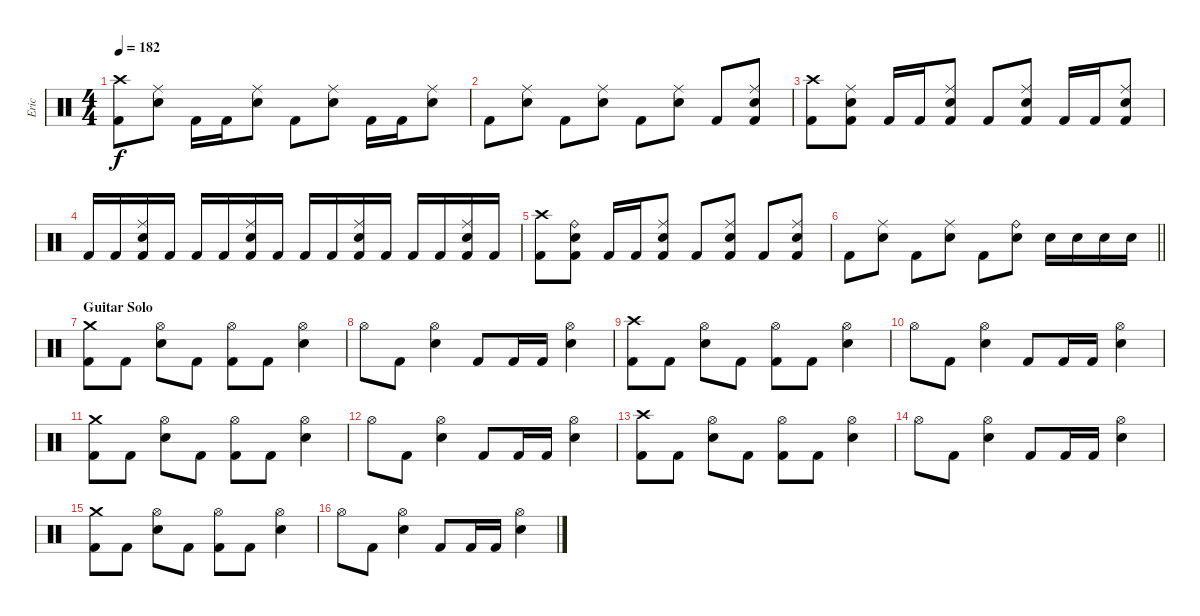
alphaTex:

\track ("Eric" "Eric") {instrument percussion}
\staff {score}
\articulation defaults
\ts (4 4)
\tempo 182
\clef neutral
\ks c
("Crash high (hit)" "Kick (hit) 2").8{dy f} ("Ride (middle)" "Snare (hit) 2").8 "Kick (hit) 2".16 "Kick (hit) 2".16 ("Ride (middle)" "Snare (hit) 2").8 "Kick (hit) 2".8 ("Ride (middle)" "Snare (hit) 2").8 "Kick (hit) 2".16 "Kick (hit) 2".16 ("Ride (middle)" "Snare (hit) 2").8 |
"Kick (hit) 2".8 ("Ride (middle)" "Snare (hit) 2").8 "Kick (hit) 2".8 ("Ride (middle)" "Snare (hit) 2").8 "Kick (hit) 2".8 ("Ride (middle)" "Snare (hit) 2").8 "Kick (hit) 2".8 ("Ride (middle)" "Snare (hit) 2" "Kick (hit) 2").8 |
("Crash high (hit)" "Kick (hit) 2").8 ("Ride (middle)" "Snare (hit) 2" "Kick (hit) 2").8 "Kick (hit) 2".16 "Kick (hit) 2".16 ("Ride (middle)" "Snare (hit) 2" "Kick (hit) 2").8 "Kick (hit) 2".8 ("Ride (middle)" "Snare (hit) 2" "Kick (hit) 2").8 "Kick (hit) 2".16 "Kick (hit) 2".16 ("Ride (middle)" "Snare (hit) 2" "Kick (hit) 2").8 |
"Kick (hit) 2".16 "Kick (hit) 2".16 ("Ride (middle)" "Snare (hit) 2" "Kick (hit) 2").16 "Kick (hit) 2".16 "Kick (hit) 2".16 "Kick (hit) 2".16 ("Ride (middle)" "Snare (hit) 2" "Kick (hit) 2").16 "Kick (hit) 2".16 "Kick (hit) 2".16 "Kick (hit) 2".16 ("Ride (middle)" "Snare (hit) 2" "Kick (hit) 2").16 "Kick (hit) 2".16 "Kick (hit) 2".16 "Kick (hit) 2".16 ("Ride (middle)" "Snare (hit) 2" "Kick (hit) 2").16 "Kick (hit) 2".16 |
("Crash high (hit)" "Kick (hit) 2").8 ("Ride (bell)" "Snare (hit) 2" "Kick (hit) 2").8 "Kick (hit) 2".16 "Kick (hit) 2".16 ("Ride (middle)" "Snare (hit) 2" "Kick (hit) 2").8 "Kick (hit) 2".8 ("Ride (middle)" "Snare (hit) 2" "Kick (hit) 2").8 "Kick (hit) 2".8 ("Ride (middle)" "Snare (hit) 2" "Kick (hit) 2").8 |
\barLineRight lightlight "Kick (hit) 2".8
("Ride (middle)" "Snare (hit) 2").8 "Kick (hit) 2".8 ("Ride (middle)" "Snare (hit) 2").8 "Kick (hit) 2".8 ("Ride (bell)" "Snare (hit) 2").8 "Snare (hit) 2".16 "Snare (hit) 2".16 "Snare (hit) 2".16 "Snare (hit) 2".16 |
\section ("" "Guitar Solo")
("Crash medium (hit)" "Kick (hit) 2").8 "Kick (hit) 2".8 ("Hi-Hat (open)" "Snare (hit) 2").8 "Kick (hit) 2".8 ("Hi-Hat (open)" "Kick (hit) 2").8 "Kick (hit) 2".8 ("Hi-Hat (open)" "Snare (hit) 2").4 |
"Hi-Hat (open)".8 "Kick (hit) 2".8 ("Hi-Hat (open)" "Snare (hit) 2").4 "Kick (hit) 2".8 "Kick (hit) 2".16 "Kick (hit) 2".16 ("Hi-Hat (open)" "Snare (hit) 2").4 |
("Crash high (hit)" "Kick (hit) 2").8 "Kick (hit) 2".8 ("Hi-Hat (open)" "Snare (hit) 2").8 "Kick (hit) 2".8 ("Hi-Hat (open)" "Kick (hit) 2").8 "Kick (hit) 2".8 ("Hi-Hat (open)" "Snare (hit) 2").4 |
"Hi-Hat (open)".8 "Kick (hit) 2".8 ("Hi-Hat (open)" "Snare (hit) 2").4 "Kick (hit) 2".8 "Kick (hit) 2".16 "Kick (hit) 2".16 ("Hi-Hat (open)" "Snare (hit) 2").4 |
("Crash medium (hit)" "Kick (hit) 2").8 "Kick (hit) 2".8 ("Hi-Hat (open)" "Snare (hit) 2").8 "Kick (hit) 2".8 ("Hi-Hat (open)" "Kick (hit) 2").8 "Kick (hit) 2".8 ("Hi-Hat (open)" "Snare (hit) 2").4 |
"Hi-Hat (open)".8 "Kick (hit) 2".8 ("Hi-Hat (open)" "Snare (hit) 2").4 "Kick (hit) 2".8 "Kick (hit) 2".16 "Kick (hit) 2".16 ("Hi-Hat (open)" "Snare (hit) 2").4 |
("Crash high (hit)" "Kick (hit) 2").8 "Kick (hit) 2".8 ("Hi-Hat (open)" "Snare (hit) 2").8 "Kick (hit) 2".8 ("Hi-Hat (open)" "Kick (hit) 2").8 "Kick (hit) 2".8 ("Hi-Hat (open)" "Snare (hit) 2").4 |
"Hi-Hat (open)".8 "Kick (hit) 2".8 ("Hi-Hat (open)" "Snare (hit) 2").4 "Kick (hit) 2".8 "Kick (hit) 2".16 "Kick (hit) 2".16 ("Hi-Hat (open)" "Snare (hit) 2").4 |
("Crash medium (hit)" "Kick (hit) 2").8 "Kick (hit) 2".8 ("Hi-Hat (open)" "Snare (hit) 2").8 "Kick (hit) 2".8 ("Hi-Hat (open)" "Kick (hit) 2").8 "Kick (hit) 2".8 ("Hi-Hat (open)" "Snare (hit) 2").4 |
"Hi-Hat (open)".8 "Kick (hit) 2".8 ("Hi-Hat (open)" "Snare (hit) 2").4 "Kick (hit) 2".8 "Kick (hit) 2".16 "Kick (hit) 2".16 ("Hi-Hat (open)" "Snare (hit) 2").4
